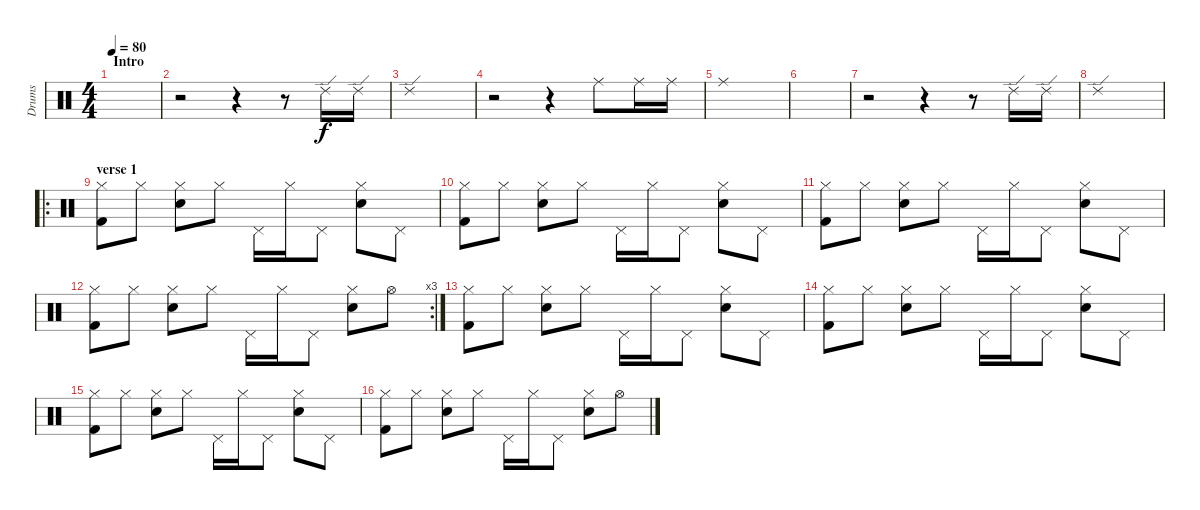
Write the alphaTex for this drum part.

\track ("Drums" "Drums") {instrument percussion}
\staff {score}
\articulation defaults
\ts (4 4)
\section ("" "Intro")
\tempo 80
\clef neutral
\ks c
|
r.2 r.4 r.8{volume 7} "Ride (edge) 2".16 "Ride (edge) 2".16 |
"Ride (edge) 2".1 |
r.2 r.4 "Ride (middle)".8 "Ride (middle)".16 "Ride (middle)".16 |
"Ride (middle)".1 |
|
r.2 r.4 r.8 "Ride (edge) 2".16 "Ride (edge) 2".16 |
"Ride (edge) 2".1{volume 12} |
\ro
\section ("" "verse 1")
("Kick (hit) 2" "Hi-Hat (closed)").8 "Hi-Hat (closed)".8 ("Snare (hit) 2" "Hi-Hat (closed)").8 "Hi-Hat (closed)".8 "Pedal Hi-Hat (hit)".16 "Hi-Hat (closed)".16 "Pedal Hi-Hat (hit)".8 ("Snare (hit) 2" "Hi-Hat (closed)").8 "Pedal Hi-Hat (hit)".8 |
("Kick (hit) 2" "Hi-Hat (closed)").8 "Hi-Hat (closed)".8 ("Snare (hit) 2" "Hi-Hat (closed)").8 "Hi-Hat (closed)".8 "Pedal Hi-Hat (hit)".16 "Hi-Hat (closed)".16 "Pedal Hi-Hat (hit)".8 ("Snare (hit) 2" "Hi-Hat (closed)").8 "Pedal Hi-Hat (hit)".8 |
("Kick (hit) 2" "Hi-Hat (closed)").8 "Hi-Hat (closed)".8 ("Snare (hit) 2" "Hi-Hat (closed)").8 "Hi-Hat (closed)".8 "Pedal Hi-Hat (hit)".16 "Hi-Hat (closed)".16 "Pedal Hi-Hat (hit)".8 ("Snare (hit) 2" "Hi-Hat (closed)").8 "Pedal Hi-Hat (hit)".8 |
\rc 3
("Kick (hit) 2" "Hi-Hat (closed)").8 "Hi-Hat (closed)".8 ("Snare (hit) 2" "Hi-Hat (closed)").8 "Hi-Hat (closed)".8 "Pedal Hi-Hat (hit)".16 "Hi-Hat (closed)".16 "Pedal Hi-Hat (hit)".8 ("Snare (hit) 2" "Hi-Hat (closed)").8 "Hi-Hat (open)".8 |
("Kick (hit) 2" "Hi-Hat (closed)").8 "Hi-Hat (closed)".8 ("Snare (hit) 2" "Hi-Hat (closed)").8 "Hi-Hat (closed)".8 "Pedal Hi-Hat (hit)".16 "Hi-Hat (closed)".16 "Pedal Hi-Hat (hit)".8 ("Snare (hit) 2" "Hi-Hat (closed)").8 "Pedal Hi-Hat (hit)".8 |
("Kick (hit) 2" "Hi-Hat (closed)").8 "Hi-Hat (closed)".8 ("Snare (hit) 2" "Hi-Hat (closed)").8 "Hi-Hat (closed)".8 "Pedal Hi-Hat (hit)".16 "Hi-Hat (closed)".16 "Pedal Hi-Hat (hit)".8 ("Snare (hit) 2" "Hi-Hat (closed)").8 "Pedal Hi-Hat (hit)".8 |
("Kick (hit) 2" "Hi-Hat (closed)").8 "Hi-Hat (closed)".8 ("Snare (hit) 2" "Hi-Hat (closed)").8 "Hi-Hat (closed)".8 "Pedal Hi-Hat (hit)".16 "Hi-Hat (closed)".16 "Pedal Hi-Hat (hit)".8 ("Snare (hit) 2" "Hi-Hat (closed)").8 "Pedal Hi-Hat (hit)".8 |
("Kick (hit) 2" "Hi-Hat (closed)").8 "Hi-Hat (closed)".8 ("Snare (hit) 2" "Hi-Hat (closed)").8 "Hi-Hat (closed)".8 "Pedal Hi-Hat (hit)".16 "Hi-Hat (closed)".16 "Pedal Hi-Hat (hit)".8 ("Snare (hit) 2" "Hi-Hat (closed)").8 "Hi-Hat (open)".8
